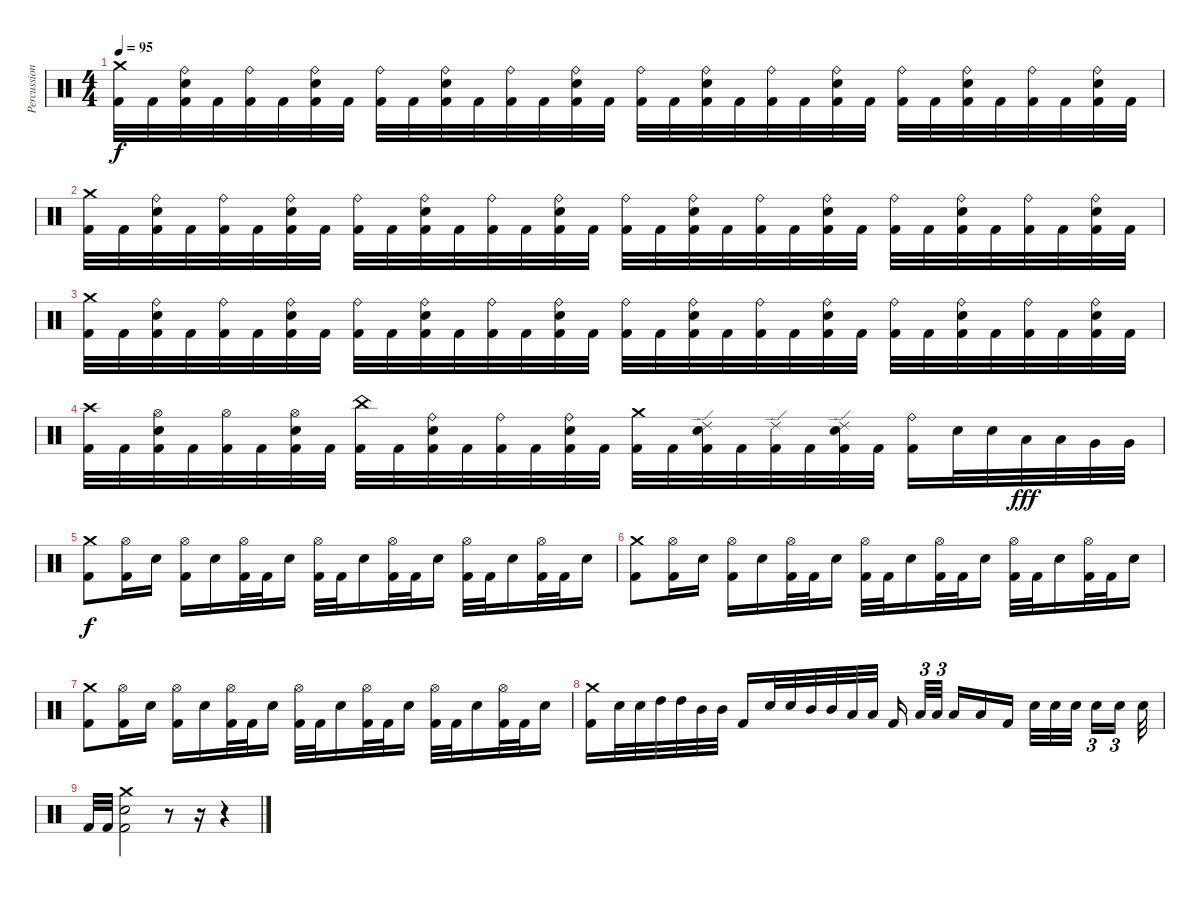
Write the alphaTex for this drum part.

\track ("Percussions" "Percussion") {instrument percussion}
\staff {score}
\articulation defaults
\ts (4 4)
\tempo 95
\clef neutral
\ks c
("Crash medium (hit)" "Kick (hit) 2").32{dy f volume 10} "Kick (hit) 2".32 ("Ride (bell)" "Electric Snare (hit)" "Kick (hit) 2").32 "Kick (hit) 2".32 ("Ride (bell)" "Kick (hit) 2").32 "Kick (hit) 2".32 ("Ride (bell)" "Electric Snare (hit)" "Kick (hit) 2").32 "Kick (hit) 2".32 ("Ride (bell)" "Kick (hit) 2").32 "Kick (hit) 2".32 ("Ride (bell)" "Electric Snare (hit)" "Kick (hit) 2").32 "Kick (hit) 2".32 ("Ride (bell)" "Kick (hit) 2").32 "Kick (hit) 2".32 ("Ride (bell)" "Electric Snare (hit)" "Kick (hit) 2").32 "Kick (hit) 2".32 ("Ride (bell)" "Kick (hit) 2").32 "Kick (hit) 2".32 ("Ride (bell)" "Electric Snare (hit)" "Kick (hit) 2").32 "Kick (hit) 2".32 ("Ride (bell)" "Kick (hit) 2").32 "Kick (hit) 2".32 ("Ride (bell)" "Electric Snare (hit)" "Kick (hit) 2").32 "Kick (hit) 2".32 ("Ride (bell)" "Kick (hit) 2").32 "Kick (hit) 2".32 ("Ride (bell)" "Electric Snare (hit)" "Kick (hit) 2").32 "Kick (hit) 2".32 ("Ride (bell)" "Kick (hit) 2").32 "Kick (hit) 2".32 ("Ride (bell)" "Electric Snare (hit)" "Kick (hit) 2").32 "Kick (hit) 2".32 |
("Crash medium (hit)" "Kick (hit) 2").32{volume 8} "Kick (hit) 2".32 ("Ride (bell)" "Electric Snare (hit)" "Kick (hit) 2").32 "Kick (hit) 2".32 ("Ride (bell)" "Kick (hit) 2").32 "Kick (hit) 2".32 ("Ride (bell)" "Electric Snare (hit)" "Kick (hit) 2").32 "Kick (hit) 2".32 ("Ride (bell)" "Kick (hit) 2").32 "Kick (hit) 2".32 ("Ride (bell)" "Electric Snare (hit)" "Kick (hit) 2").32 "Kick (hit) 2".32 ("Ride (bell)" "Kick (hit) 2").32 "Kick (hit) 2".32 ("Ride (bell)" "Electric Snare (hit)" "Kick (hit) 2").32 "Kick (hit) 2".32 ("Ride (bell)" "Kick (hit) 2").32 "Kick (hit) 2".32 ("Ride (bell)" "Electric Snare (hit)" "Kick (hit) 2").32 "Kick (hit) 2".32 ("Ride (bell)" "Kick (hit) 2").32 "Kick (hit) 2".32 ("Ride (bell)" "Electric Snare (hit)" "Kick (hit) 2").32 "Kick (hit) 2".32 ("Ride (bell)" "Kick (hit) 2").32 "Kick (hit) 2".32 ("Ride (bell)" "Electric Snare (hit)" "Kick (hit) 2").32 "Kick (hit) 2".32 ("Ride (bell)" "Kick (hit) 2").32 "Kick (hit) 2".32 ("Ride (bell)" "Electric Snare (hit)" "Kick (hit) 2").32 "Kick (hit) 2".32 |
("Crash medium (hit)" "Kick (hit) 2").32{volume 7} "Kick (hit) 2".32 ("Ride (bell)" "Electric Snare (hit)" "Kick (hit) 2").32 "Kick (hit) 2".32 ("Ride (bell)" "Kick (hit) 2").32 "Kick (hit) 2".32 ("Ride (bell)" "Electric Snare (hit)" "Kick (hit) 2").32 "Kick (hit) 2".32 ("Ride (bell)" "Kick (hit) 2").32 "Kick (hit) 2".32 ("Ride (bell)" "Electric Snare (hit)" "Kick (hit) 2").32 "Kick (hit) 2".32 ("Ride (bell)" "Kick (hit) 2").32 "Kick (hit) 2".32 ("Ride (bell)" "Electric Snare (hit)" "Kick (hit) 2").32 "Kick (hit) 2".32 ("Ride (bell)" "Kick (hit) 2").32 "Kick (hit) 2".32 ("Ride (bell)" "Electric Snare (hit)" "Kick (hit) 2").32 "Kick (hit) 2".32 ("Ride (bell)" "Kick (hit) 2").32 "Kick (hit) 2".32 ("Ride (bell)" "Electric Snare (hit)" "Kick (hit) 2").32 "Kick (hit) 2".32 ("Ride (bell)" "Kick (hit) 2").32 "Kick (hit) 2".32 ("Ride (bell)" "Electric Snare (hit)" "Kick (hit) 2").32 "Kick (hit) 2".32 ("Ride (bell)" "Kick (hit) 2").32 "Kick (hit) 2".32 ("Ride (bell)" "Electric Snare (hit)" "Kick (hit) 2").32 "Kick (hit) 2".32 |
("Crash high (hit)" "Kick (hit) 2").32{volume 5} "Kick (hit) 2".32 ("Hi-Hat (open)" "Electric Snare (hit)" "Kick (hit) 2").32 "Kick (hit) 2".32 ("Hi-Hat (open)" "Kick (hit) 2").32 "Kick (hit) 2".32 ("Hi-Hat (open)" "Electric Snare (hit)" "Kick (hit) 2").32 "Kick (hit) 2".32 ("China (hit)" "Kick (hit) 2").32 "Kick (hit) 2".32 ("Ride (bell)" "Electric Snare (hit)" "Kick (hit) 2").32 "Kick (hit) 2".32 ("Ride (bell)" "Kick (hit) 2").32 "Kick (hit) 2".32 ("Ride (bell)" "Electric Snare (hit)" "Kick (hit) 2").32 "Kick (hit) 2".32 ("Crash medium (hit)" "Kick (hit) 2").32 "Kick (hit) 2".32 ("Ride (edge) 2" "Electric Snare (hit)" "Kick (hit) 2").32 "Kick (hit) 2".32 ("Ride (edge) 2" "Kick (hit) 2").32 "Kick (hit) 2".32 ("Ride (edge) 2" "Electric Snare (hit)" "Kick (hit) 2").32 "Kick (hit) 2".32 ("Ride (bell)" "Kick (hit) 2").16 "Electric Snare (hit)".32 "Electric Snare (hit)".32 "Low Tom (hit)".32{dy fff} "Low Tom (hit)".32 "Very Low Tom (hit)".32 "Very Low Tom (hit)".32 |
("Crash medium (hit)" "Kick (hit) 2").8{dy f} ("Hi-Hat (open)" "Kick (hit) 2").16 "Electric Snare (hit)".16 ("Hi-Hat (open)" "Kick (hit) 2").16 "Electric Snare (hit)".16 ("Hi-Hat (open)" "Kick (hit) 2").32 "Kick (hit) 2".32 "Electric Snare (hit)".16 ("Hi-Hat (open)" "Kick (hit) 2").32 "Kick (hit) 2".32 "Electric Snare (hit)".16 ("Hi-Hat (open)" "Kick (hit) 2").32 "Kick (hit) 2".32 "Electric Snare (hit)".16 ("Hi-Hat (open)" "Kick (hit) 2").32 "Kick (hit) 2".32 "Electric Snare (hit)".16 ("Hi-Hat (open)" "Kick (hit) 2").32 "Kick (hit) 2".32 "Electric Snare (hit)".16 |
("Crash medium (hit)" "Kick (hit) 2").8{volume 4} ("Hi-Hat (open)" "Kick (hit) 2").16 "Electric Snare (hit)".16 ("Hi-Hat (open)" "Kick (hit) 2").16 "Electric Snare (hit)".16 ("Hi-Hat (open)" "Kick (hit) 2").32 "Kick (hit) 2".32 "Electric Snare (hit)".16 ("Hi-Hat (open)" "Kick (hit) 2").32 "Kick (hit) 2".32 "Electric Snare (hit)".16 ("Hi-Hat (open)" "Kick (hit) 2").32 "Kick (hit) 2".32 "Electric Snare (hit)".16 ("Hi-Hat (open)" "Kick (hit) 2").32 "Kick (hit) 2".32 "Electric Snare (hit)".16 ("Hi-Hat (open)" "Kick (hit) 2").32 "Kick (hit) 2".32 "Electric Snare (hit)".16 |
("Crash medium (hit)" "Kick (hit) 2").8{volume 3} ("Hi-Hat (open)" "Kick (hit) 2").16 "Electric Snare (hit)".16 ("Hi-Hat (open)" "Kick (hit) 2").16 "Electric Snare (hit)".16 ("Hi-Hat (open)" "Kick (hit) 2").32 "Kick (hit) 2".32 "Electric Snare (hit)".16 ("Hi-Hat (open)" "Kick (hit) 2").32 "Kick (hit) 2".32 "Electric Snare (hit)".16 ("Hi-Hat (open)" "Kick (hit) 2").32 "Kick (hit) 2".32 "Electric Snare (hit)".16 ("Hi-Hat (open)" "Kick (hit) 2").32 "Kick (hit) 2".32 "Electric Snare (hit)".16 ("Hi-Hat (open)" "Kick (hit) 2").32 "Kick (hit) 2".32 "Electric Snare (hit)".16 |
("Crash medium (hit)" "Kick (hit) 2").16{volume 2} "Electric Snare (hit)".32 "Electric Snare (hit)".32 "High Tom (hit)".32 "High Tom (hit)".32 "Mid Tom (hit)".32 "Mid Tom (hit)".32 "Kick (hit) 2".16 "Electric Snare (hit)".32 "Electric Snare (hit)".32 "Mid Tom (hit)".32 "Mid Tom (hit)".32 "Low Tom (hit)".32 "Low Tom (hit)".32 "Kick (hit) 2".16 "Low Tom (hit)".32{tu (3 2)} "Low Tom (hit)".32{tu (3 2)} "Low Tom (hit)".16 "Low Tom (hit)".16 "Kick (hit) 2".16 "Electric Snare (hit)".32 "Electric Snare (hit)".32 "Electric Snare (hit)".32 "Electric Snare (hit)".16{tu (3 2)} "Electric Snare (hit)".16{tu (3 2)} "Electric Snare (hit)".32 |
"Kick (hit) 2".32{volume 13} "Kick (hit) 2".32 ("Crash medium (hit)" "Electric Snare (hit)" "Kick (hit) 2").2 r.8 r.16 r.4
